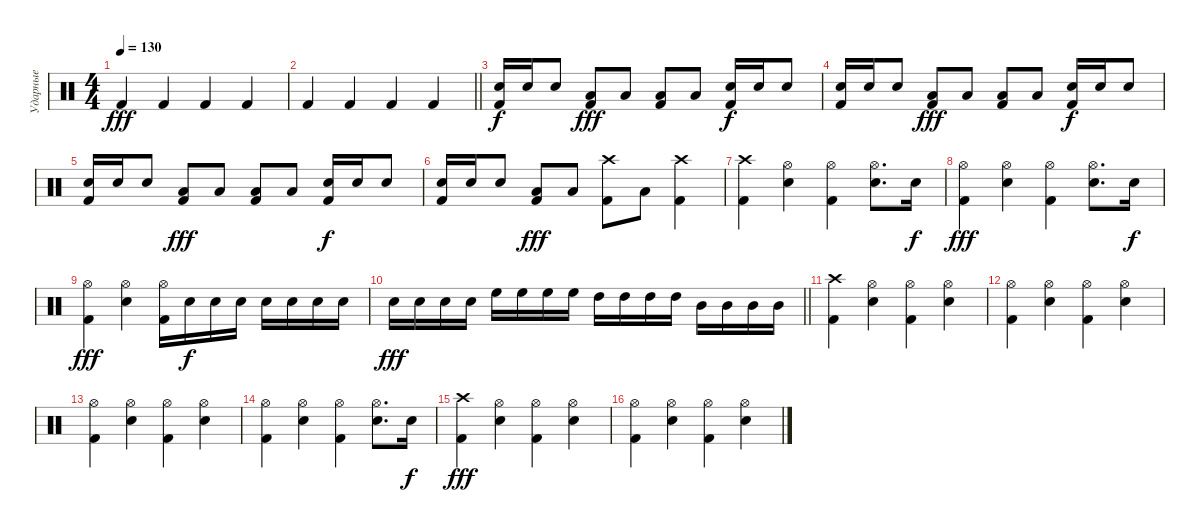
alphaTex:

\track ("Ударные" "Ударные") {instrument percussion}
\staff {score}
\articulation defaults
\ts (4 4)
\tempo 130
\clef neutral
\ks c "Kick (hit) 2".4{dy fff} "Kick (hit) 2".4 "Kick (hit) 2".4 "Kick (hit) 2".4
|
\barLineRight lightlight "Kick (hit) 2".4 "Kick (hit) 2".4 "Kick (hit) 2".4 "Kick (hit) 2".4
|
("Kick (hit) 2" "Snare (hit) 2").16{dy f} "Snare (hit) 2".16 "Snare (hit) 2".8 ("Kick (hit) 2" "Low Floor Tom (hit)").8{dy fff} "Low Floor Tom (hit)".8 ("Kick (hit) 2" "Low Floor Tom (hit)").8 "Low Floor Tom (hit)".8 ("Kick (hit) 2" "Snare (hit) 2").16{dy f} "Snare (hit) 2".16 "Snare (hit) 2".8 |
("Kick (hit) 2" "Snare (hit) 2").16 "Snare (hit) 2".16 "Snare (hit) 2".8 ("Kick (hit) 2" "Low Floor Tom (hit)").8{dy fff} "Low Floor Tom (hit)".8 ("Kick (hit) 2" "Low Floor Tom (hit)").8 "Low Floor Tom (hit)".8 ("Kick (hit) 2" "Snare (hit) 2").16{dy f} "Snare (hit) 2".16 "Snare (hit) 2".8 |
("Kick (hit) 2" "Snare (hit) 2").16 "Snare (hit) 2".16 "Snare (hit) 2".8 ("Kick (hit) 2" "Low Floor Tom (hit)").8{dy fff} "Low Floor Tom (hit)".8 ("Kick (hit) 2" "Low Floor Tom (hit)").8 "Low Floor Tom (hit)".8 ("Kick (hit) 2" "Snare (hit) 2").16{dy f} "Snare (hit) 2".16 "Snare (hit) 2".8 |
("Kick (hit) 2" "Snare (hit) 2").16 "Snare (hit) 2".16 "Snare (hit) 2".8 ("Kick (hit) 2" "Low Floor Tom (hit)").8{dy fff} "Low Floor Tom (hit)".8 ("Kick (hit) 2" "Crash high (hit)").8 "Low Floor Tom (hit)".8 ("Kick (hit) 2" "Crash high (hit)").4 |
("Kick (hit) 2" "Crash high (hit)").4 ("Snare (hit) 2" "Hi-Hat (open)").4 ("Kick (hit) 2" "Hi-Hat (open)").4 ("Snare (hit) 2" "Hi-Hat (open)").8{d} "Snare (hit) 2".16{dy f} |
("Kick (hit) 2" "Hi-Hat (open)").4{dy fff} ("Snare (hit) 2" "Hi-Hat (open)").4 ("Kick (hit) 2" "Hi-Hat (open)").4 ("Snare (hit) 2" "Hi-Hat (open)").8{d} "Snare (hit) 2".16{dy f} |
("Kick (hit) 2" "Hi-Hat (open)").4{dy fff} ("Snare (hit) 2" "Hi-Hat (open)").4 ("Kick (hit) 2" "Hi-Hat (open)").16 "Snare (hit) 2".16{dy f} "Snare (hit) 2".16 "Snare (hit) 2".16 "Snare (hit) 2".16 "Snare (hit) 2".16 "Snare (hit) 2".16 "Snare (hit) 2".16 |
\barLineRight lightlight "Electric Snare (hit)".16{dy fff} "Electric Snare (hit)".16 "Electric Snare (hit)".16 "Electric Snare (hit)".16 "High Floor Tom (hit)".16 "High Floor Tom (hit)".16 "High Floor Tom (hit)".16 "High Floor Tom (hit)".16 "High Tom (hit)".16 "High Tom (hit)".16 "High Tom (hit)".16 "High Tom (hit)".16 "Mid Tom (hit)".16 "Mid Tom (hit)".16 "Mid Tom (hit)".16 "Mid Tom (hit)".16
|
("Kick (hit) 2" "Crash high (hit)").4 ("Snare (hit) 2" "Hi-Hat (open)").4 ("Kick (hit) 2" "Hi-Hat (open)").4 ("Snare (hit) 2" "Hi-Hat (open)").4 |
("Kick (hit) 2" "Hi-Hat (open)").4 ("Snare (hit) 2" "Hi-Hat (open)").4 ("Kick (hit) 2" "Hi-Hat (open)").4 ("Snare (hit) 2" "Hi-Hat (open)").4 |
("Kick (hit) 2" "Hi-Hat (open)").4 ("Snare (hit) 2" "Hi-Hat (open)").4 ("Kick (hit) 2" "Hi-Hat (open)").4 ("Snare (hit) 2" "Hi-Hat (open)").4 |
("Kick (hit) 2" "Hi-Hat (open)").4 ("Snare (hit) 2" "Hi-Hat (open)").4 ("Kick (hit) 2" "Hi-Hat (open)").4 ("Snare (hit) 2" "Hi-Hat (open)").8{d} "Snare (hit) 2".16{dy f} |
("Kick (hit) 2" "Crash high (hit)").4{dy fff} ("Snare (hit) 2" "Hi-Hat (open)").4 ("Kick (hit) 2" "Hi-Hat (open)").4 ("Snare (hit) 2" "Hi-Hat (open)").4 |
("Kick (hit) 2" "Hi-Hat (open)").4 ("Snare (hit) 2" "Hi-Hat (open)").4 ("Kick (hit) 2" "Hi-Hat (open)").4 ("Snare (hit) 2" "Hi-Hat (open)").4
